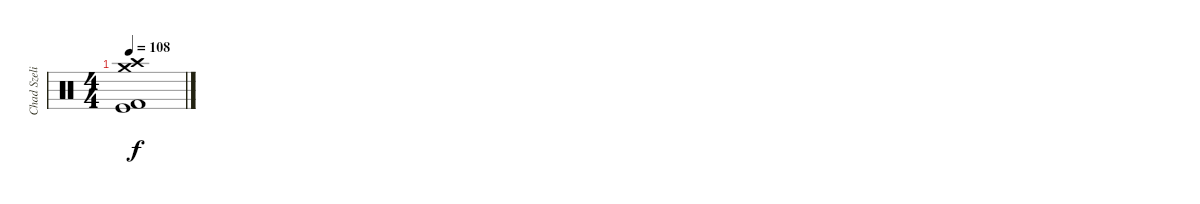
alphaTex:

\track ("Chad Szeliga" "Chad Szeli") {instrument percussion}
\staff {score}
\articulation defaults
\ts (4 4)
\tempo 108
\clef neutral
\ks c
("Crash high (hit)" "Kick (hit) 2" "Kick (hit)" "Crash medium (hit)").1{dy f}
